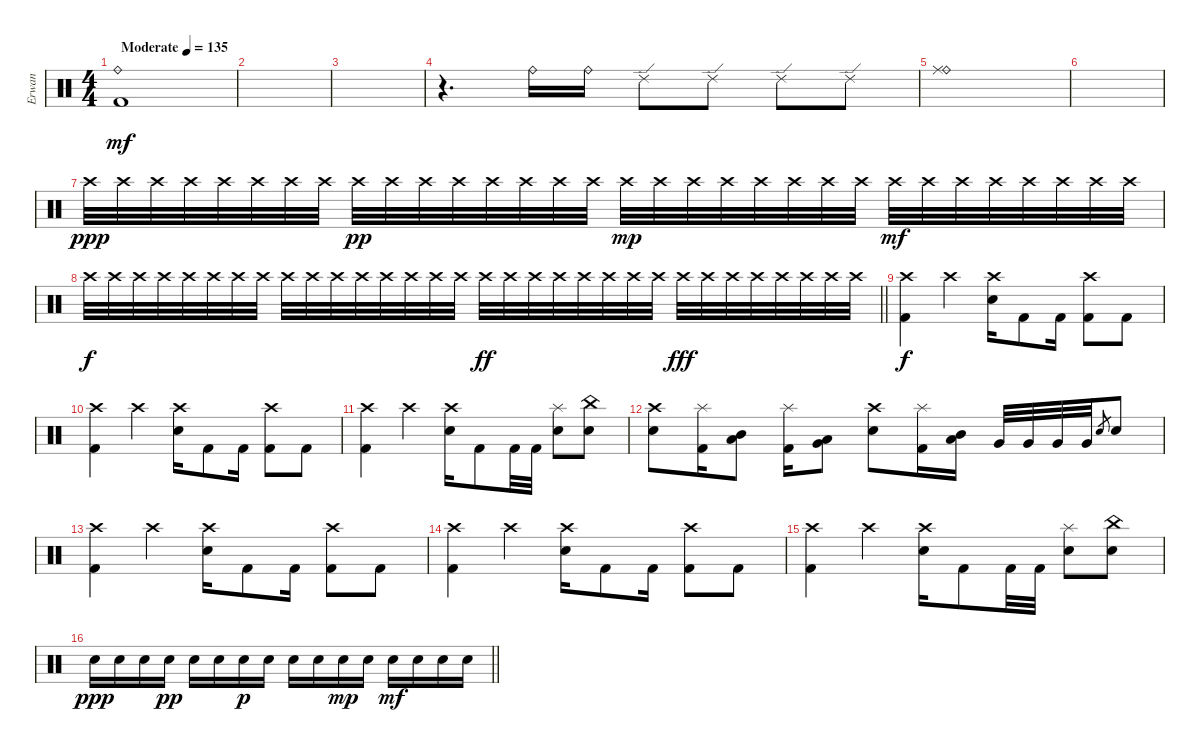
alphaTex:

\track ("Erwan" "Erwan") {instrument percussion}
\staff {score}
\articulation defaults
\ts (4 4)
\tempo (135 "Moderate")
\clef neutral
\ks c
("Ride (bell)" "Kick (hit) 2").1{dy mf} |
|
|
r.4{d} "Ride (bell)".16 "Ride (bell)".16 "Ride (edge) 2".8 "Ride (edge) 2".8 "Ride (edge) 2".8 "Ride (edge) 2".8 |
("Ride (bell)" "Ride (middle)").1 |
|
"Crash high (hit)".32{dy ppp} "Crash high (hit)".32 "Crash high (hit)".32 "Crash high (hit)".32 "Crash high (hit)".32 "Crash high (hit)".32 "Crash high (hit)".32 "Crash high (hit)".32 "Crash high (hit)".32{dy pp} "Crash high (hit)".32 "Crash high (hit)".32 "Crash high (hit)".32 "Crash high (hit)".32 "Crash high (hit)".32 "Crash high (hit)".32 "Crash high (hit)".32 "Crash high (hit)".32{dy mp} "Crash high (hit)".32 "Crash high (hit)".32 "Crash high (hit)".32 "Crash high (hit)".32 "Crash high (hit)".32 "Crash high (hit)".32 "Crash high (hit)".32 "Crash high (hit)".32{dy mf} "Crash high (hit)".32 "Crash high (hit)".32 "Crash high (hit)".32 "Crash high (hit)".32 "Crash high (hit)".32 "Crash high (hit)".32 "Crash high (hit)".32 |
\barLineRight lightlight "Crash high (hit)".32{dy f} "Crash high (hit)".32 "Crash high (hit)".32 "Crash high (hit)".32 "Crash high (hit)".32 "Crash high (hit)".32 "Crash high (hit)".32 "Crash high (hit)".32 "Crash high (hit)".32 "Crash high (hit)".32 "Crash high (hit)".32 "Crash high (hit)".32 "Crash high (hit)".32 "Crash high (hit)".32 "Crash high (hit)".32 "Crash high (hit)".32 "Crash high (hit)".32{dy ff} "Crash high (hit)".32 "Crash high (hit)".32 "Crash high (hit)".32 "Crash high (hit)".32 "Crash high (hit)".32 "Crash high (hit)".32 "Crash high (hit)".32 "Crash high (hit)".32{dy fff} "Crash high (hit)".32 "Crash high (hit)".32 "Crash high (hit)".32 "Crash high (hit)".32 "Crash high (hit)".32 "Crash high (hit)".32 "Crash high (hit)".32
|
("Crash high (hit)" "Kick (hit) 2").4{dy f} "Crash high (hit)".4 ("Crash high (hit)" "Electric Snare (hit)").16 "Kick (hit) 2".8 "Kick (hit) 2".16 ("Crash high (hit)" "Kick (hit) 2").8 "Kick (hit) 2".8 |
("Crash high (hit)" "Kick (hit) 2").4 "Crash high (hit)".4 ("Crash high (hit)" "Electric Snare (hit)").16 "Kick (hit) 2".8 "Kick (hit) 2".16 ("Crash high (hit)" "Kick (hit) 2").8 "Kick (hit) 2".8 |
("Crash high (hit)" "Kick (hit) 2").4 "Crash high (hit)".4 ("Crash high (hit)" "Electric Snare (hit)").16 "Kick (hit) 2".8 "Kick (hit) 2".32 "Kick (hit) 2".32 ("Splash (hit)" "Electric Snare (hit)").8 ("China (hit)" "Electric Snare (hit)").8 |
("Crash high (hit)" "Electric Snare (hit)").8 ("Splash (hit)" "Kick (hit) 2").16 ("Mid Tom (hit)" "Low Tom (hit)").8 ("Splash (hit)" "Kick (hit) 2").16 ("Low Tom (hit)" "Very Low Tom (hit)").8 ("Crash high (hit)" "Electric Snare (hit)").8 ("Splash (hit)" "Kick (hit) 2").16 ("Mid Tom (hit)" "Low Tom (hit)").16 "Very Low Tom (hit)".32 "Very Low Tom (hit)".32 "Very Low Tom (hit)".32 "Very Low Tom (hit)".32 "Electric Snare (hit)".8{gr} "Electric Snare (hit)".8 |
("Crash high (hit)" "Kick (hit) 2").4 "Crash high (hit)".4 ("Crash high (hit)" "Electric Snare (hit)").16 "Kick (hit) 2".8 "Kick (hit) 2".16 ("Crash high (hit)" "Kick (hit) 2").8 "Kick (hit) 2".8 |
("Crash high (hit)" "Kick (hit) 2").4 "Crash high (hit)".4 ("Crash high (hit)" "Electric Snare (hit)").16 "Kick (hit) 2".8 "Kick (hit) 2".16 ("Crash high (hit)" "Kick (hit) 2").8 "Kick (hit) 2".8 |
("Crash high (hit)" "Kick (hit) 2").4 "Crash high (hit)".4 ("Crash high (hit)" "Electric Snare (hit)").16 "Kick (hit) 2".8 "Kick (hit) 2".32 "Kick (hit) 2".32 ("Splash (hit)" "Electric Snare (hit)").8 ("China (hit)" "Electric Snare (hit)").8 |
\barLineRight lightlight "Electric Snare (hit)".16{dy ppp} "Electric Snare (hit)".16 "Electric Snare (hit)".16 "Electric Snare (hit)".16{dy pp} "Electric Snare (hit)".16 "Electric Snare (hit)".16 "Electric Snare (hit)".16{dy p} "Electric Snare (hit)".16 "Electric Snare (hit)".16 "Electric Snare (hit)".16 "Electric Snare (hit)".16{dy mp} "Electric Snare (hit)".16 "Electric Snare (hit)".16{dy mf} "Electric Snare (hit)".16 "Electric Snare (hit)".16 "Electric Snare (hit)".16
